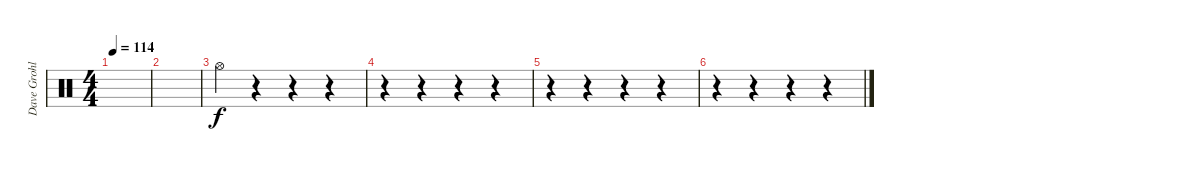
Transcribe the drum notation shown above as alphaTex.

\track ("Dave Grohl" "Dave Grohl") {instrument percussion}
\staff {score}
\articulation defaults
\ts (4 4)
\tempo 114
\clef neutral
\ks c
|
|
"Hi-Hat (open)".4 r.4 r.4 r.4 |
r.4 r.4 r.4 r.4 |
r.4 r.4 r.4 r.4 |
r.4 r.4 r.4 r.4
